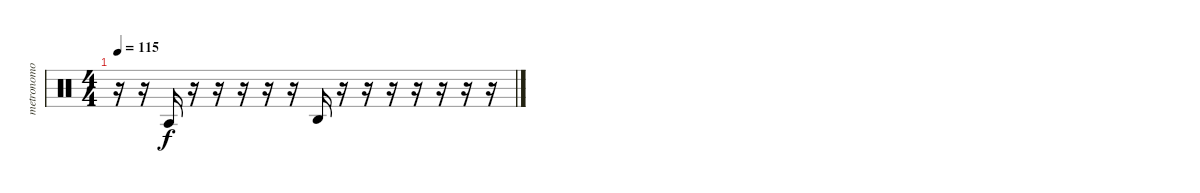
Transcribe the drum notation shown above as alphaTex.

\track ("metronomo" "metronomo") {mute instrument percussion}
\staff {score}
\articulation defaults
\ts (4 4)
\tempo 115
\clef neutral
\ks c
r.16{dy f} r.16 "Agogo tow (hit)".16 r.16 r.16 r.16 r.16 r.16 "Agogo high (hit)".16 r.16 r.16 r.16 r.16 r.16 r.16 r.16
